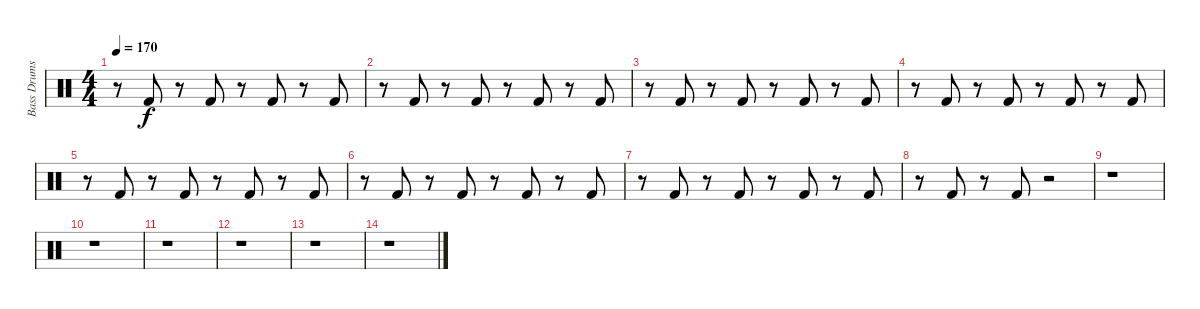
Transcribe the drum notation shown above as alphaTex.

\track ("Bass Drums" "Bass Drums") {instrument percussion}
\staff {score}
\articulation defaults
\ts (4 4)
\tempo 170
\clef neutral
\ks c
r.8{dy f} "Kick (hit) 2".8 r.8 "Kick (hit) 2".8 r.8 "Kick (hit) 2".8 r.8 "Kick (hit) 2".8 |
r.8 "Kick (hit) 2".8 r.8 "Kick (hit) 2".8 r.8 "Kick (hit) 2".8 r.8 "Kick (hit) 2".8 |
r.8 "Kick (hit) 2".8 r.8 "Kick (hit) 2".8 r.8 "Kick (hit) 2".8 r.8 "Kick (hit) 2".8 |
r.8 "Kick (hit) 2".8 r.8 "Kick (hit) 2".8 r.8 "Kick (hit) 2".8 r.8 "Kick (hit) 2".8 |
r.8 "Kick (hit) 2".8 r.8 "Kick (hit) 2".8 r.8 "Kick (hit) 2".8 r.8 "Kick (hit) 2".8 |
r.8 "Kick (hit) 2".8 r.8 "Kick (hit) 2".8 r.8 "Kick (hit) 2".8 r.8 "Kick (hit) 2".8 |
r.8 "Kick (hit) 2".8 r.8 "Kick (hit) 2".8 r.8 "Kick (hit) 2".8 r.8 "Kick (hit) 2".8 |
r.8 "Kick (hit) 2".8 r.8 "Kick (hit) 2".8 r.2 |
r.1 |
r.1 |
r.1 |
r.1 |
r.1 |
r.1
